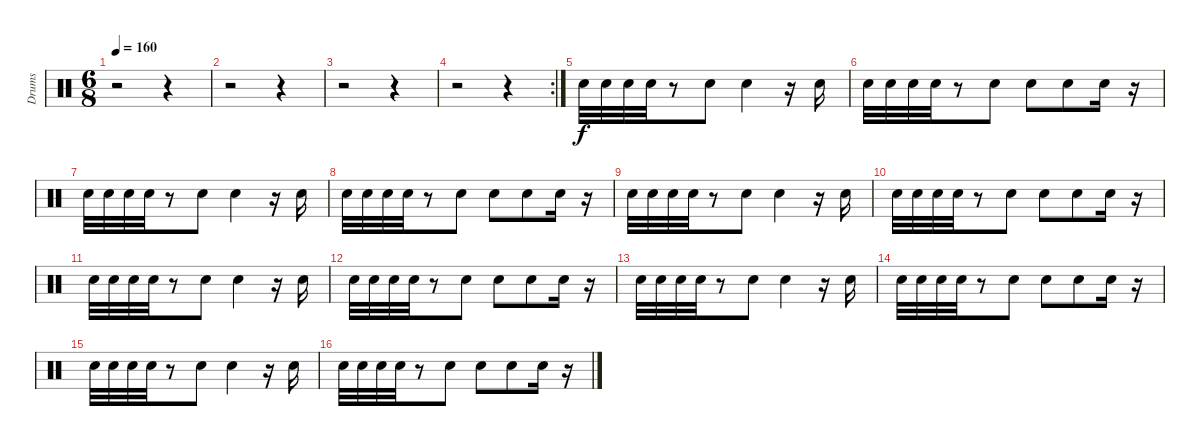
\track ("Drums" "Drums") {instrument percussion}
\staff {score}
\articulation defaults
\ts (6 8)
\tempo 160
\clef neutral
\ks c
r.2{dy f} r.4 |
r.2 r.4 |
r.2 r.4 |
\rc 2
r.2 r.4 |
"Snare (hit) 2".32 "Snare (hit) 2".32 "Snare (hit) 2".32 "Snare (hit) 2".32 r.8 "Snare (hit) 2".8 "Snare (hit) 2".4 r.16 "Snare (hit) 2".16 |
"Snare (hit) 2".32 "Snare (hit) 2".32 "Snare (hit) 2".32 "Snare (hit) 2".32 r.8 "Snare (hit) 2".8 "Snare (hit) 2".8 "Snare (hit) 2".8 "Snare (hit) 2".16 r.16 |
"Snare (hit) 2".32 "Snare (hit) 2".32 "Snare (hit) 2".32 "Snare (hit) 2".32 r.8 "Snare (hit) 2".8 "Snare (hit) 2".4 r.16 "Snare (hit) 2".16 |
"Snare (hit) 2".32 "Snare (hit) 2".32 "Snare (hit) 2".32 "Snare (hit) 2".32 r.8 "Snare (hit) 2".8 "Snare (hit) 2".8 "Snare (hit) 2".8 "Snare (hit) 2".16 r.16 |
"Snare (hit) 2".32 "Snare (hit) 2".32 "Snare (hit) 2".32 "Snare (hit) 2".32 r.8 "Snare (hit) 2".8 "Snare (hit) 2".4 r.16 "Snare (hit) 2".16 |
"Snare (hit) 2".32 "Snare (hit) 2".32 "Snare (hit) 2".32 "Snare (hit) 2".32 r.8 "Snare (hit) 2".8 "Snare (hit) 2".8 "Snare (hit) 2".8 "Snare (hit) 2".16 r.16 |
"Snare (hit) 2".32 "Snare (hit) 2".32 "Snare (hit) 2".32 "Snare (hit) 2".32 r.8 "Snare (hit) 2".8 "Snare (hit) 2".4 r.16 "Snare (hit) 2".16 |
"Snare (hit) 2".32 "Snare (hit) 2".32 "Snare (hit) 2".32 "Snare (hit) 2".32 r.8 "Snare (hit) 2".8 "Snare (hit) 2".8 "Snare (hit) 2".8 "Snare (hit) 2".16 r.16 |
"Snare (hit) 2".32 "Snare (hit) 2".32 "Snare (hit) 2".32 "Snare (hit) 2".32 r.8 "Snare (hit) 2".8 "Snare (hit) 2".4 r.16 "Snare (hit) 2".16 |
"Snare (hit) 2".32 "Snare (hit) 2".32 "Snare (hit) 2".32 "Snare (hit) 2".32 r.8 "Snare (hit) 2".8 "Snare (hit) 2".8 "Snare (hit) 2".8 "Snare (hit) 2".16 r.16 |
"Snare (hit) 2".32 "Snare (hit) 2".32 "Snare (hit) 2".32 "Snare (hit) 2".32 r.8 "Snare (hit) 2".8 "Snare (hit) 2".4 r.16 "Snare (hit) 2".16 |
"Snare (hit) 2".32 "Snare (hit) 2".32 "Snare (hit) 2".32 "Snare (hit) 2".32 r.8 "Snare (hit) 2".8 "Snare (hit) 2".8 "Snare (hit) 2".8 "Snare (hit) 2".16 r.16
